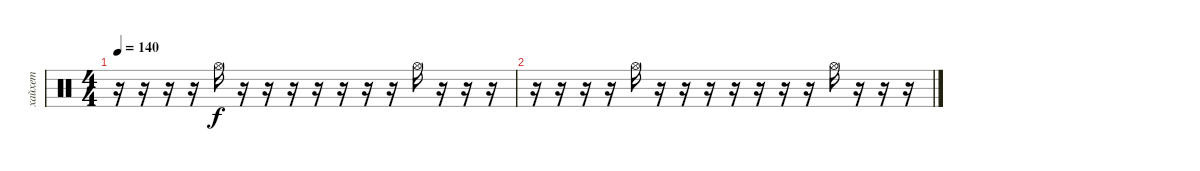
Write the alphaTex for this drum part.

\track ("хайхет" "хайхет") {mute instrument percussion}
\staff {score}
\articulation defaults
\ts (4 4)
\tempo 140
\clef neutral
\ks c
r.16{dy f} r.16 r.16 r.16 "Hi-Hat (open)".16 r.16 r.16 r.16 r.16 r.16 r.16 r.16 "Hi-Hat (open)".16 r.16 r.16 r.16 |
r.16 r.16 r.16 r.16 "Hi-Hat (open)".16 r.16 r.16 r.16 r.16 r.16 r.16 r.16 "Hi-Hat (open)".16 r.16 r.16 r.16
